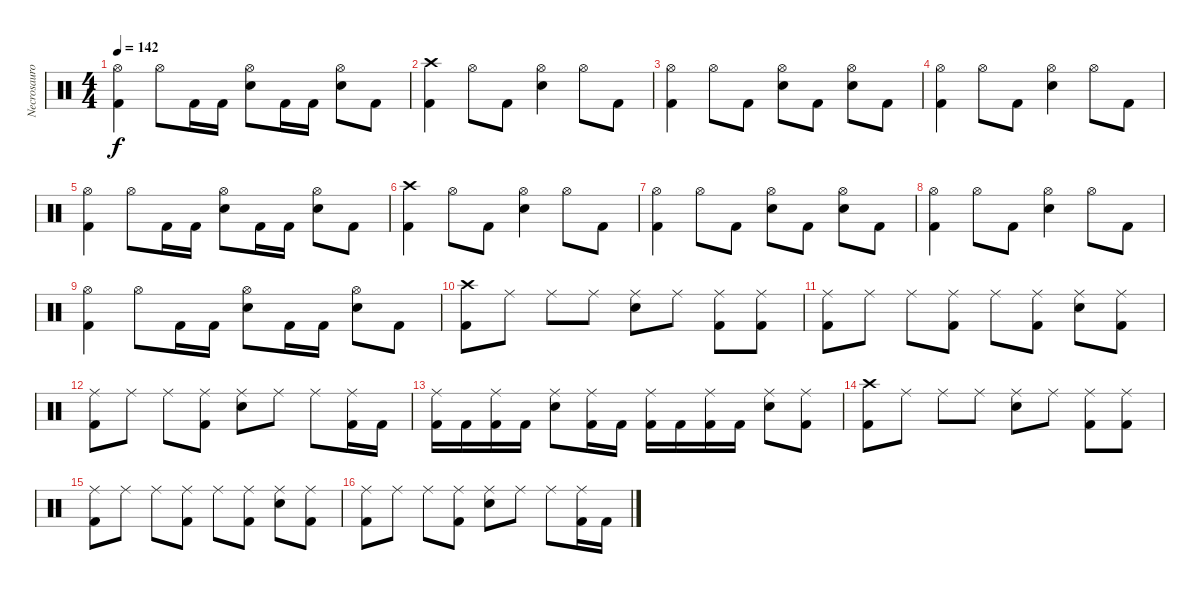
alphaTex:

\track ("Necrosauron" "Necrosauro") {instrument percussion}
\staff {score}
\articulation defaults
\ts (4 4)
\tempo 142
\clef neutral
\ks c
("Hi-Hat (open)" "Kick (hit) 2").4{dy f} "Hi-Hat (open)".8 "Kick (hit) 2".16 "Kick (hit) 2".16 ("Hi-Hat (open)" "Snare (hit) 2").8 "Kick (hit) 2".16 "Kick (hit) 2".16 ("Hi-Hat (open)" "Snare (hit) 2").8 "Kick (hit) 2".8 |
("Crash high (hit)" "Kick (hit) 2").4 "Hi-Hat (open)".8 "Kick (hit) 2".8 ("Hi-Hat (open)" "Snare (hit) 2").4 "Hi-Hat (open)".8 "Kick (hit) 2".8 |
("Hi-Hat (open)" "Kick (hit) 2").4 "Hi-Hat (open)".8 "Kick (hit) 2".8 ("Hi-Hat (open)" "Snare (hit) 2").8 "Kick (hit) 2".8 ("Hi-Hat (open)" "Snare (hit) 2").8 "Kick (hit) 2".8 |
("Hi-Hat (open)" "Kick (hit) 2").4 "Hi-Hat (open)".8 "Kick (hit) 2".8 ("Hi-Hat (open)" "Snare (hit) 2").4 "Hi-Hat (open)".8 "Kick (hit) 2".8 |
("Hi-Hat (open)" "Kick (hit) 2").4 "Hi-Hat (open)".8 "Kick (hit) 2".16 "Kick (hit) 2".16 ("Hi-Hat (open)" "Snare (hit) 2").8 "Kick (hit) 2".16 "Kick (hit) 2".16 ("Hi-Hat (open)" "Snare (hit) 2").8 "Kick (hit) 2".8 |
("Crash high (hit)" "Kick (hit) 2").4 "Hi-Hat (open)".8 "Kick (hit) 2".8 ("Hi-Hat (open)" "Snare (hit) 2").4 "Hi-Hat (open)".8 "Kick (hit) 2".8 |
("Hi-Hat (open)" "Kick (hit) 2").4 "Hi-Hat (open)".8 "Kick (hit) 2".8 ("Hi-Hat (open)" "Snare (hit) 2").8 "Kick (hit) 2".8 ("Hi-Hat (open)" "Snare (hit) 2").8 "Kick (hit) 2".8 |
("Hi-Hat (open)" "Kick (hit) 2").4 "Hi-Hat (open)".8 "Kick (hit) 2".8 ("Hi-Hat (open)" "Snare (hit) 2").4 "Hi-Hat (open)".8 "Kick (hit) 2".8 |
("Hi-Hat (open)" "Kick (hit) 2").4 "Hi-Hat (open)".8 "Kick (hit) 2".16 "Kick (hit) 2".16 ("Hi-Hat (open)" "Snare (hit) 2").8 "Kick (hit) 2".16 "Kick (hit) 2".16 ("Hi-Hat (open)" "Snare (hit) 2").8 "Kick (hit) 2".8 |
("Crash high (hit)" "Kick (hit) 2").8 "Ride (middle)".8 "Ride (middle)".8 "Ride (middle)".8 ("Ride (middle)" "Snare (hit) 2").8 "Ride (middle)".8 ("Ride (middle)" "Kick (hit) 2").8 ("Ride (middle)" "Kick (hit) 2").8 |
("Ride (middle)" "Kick (hit) 2").8 "Ride (middle)".8 "Ride (middle)".8 ("Ride (middle)" "Kick (hit) 2").8 "Ride (middle)".8 ("Ride (middle)" "Kick (hit) 2").8 ("Ride (middle)" "Snare (hit) 2").8 ("Ride (middle)" "Kick (hit) 2").8 |
("Ride (middle)" "Kick (hit) 2").8 "Ride (middle)".8 "Ride (middle)".8 ("Ride (middle)" "Kick (hit) 2").8 ("Ride (middle)" "Snare (hit) 2").8 "Ride (middle)".8 "Ride (middle)".8 ("Ride (middle)" "Kick (hit) 2").16 "Kick (hit) 2".16 |
("Ride (middle)" "Kick (hit) 2").16 "Kick (hit) 2".16 ("Ride (middle)" "Kick (hit) 2").16 "Kick (hit) 2".16 ("Ride (middle)" "Snare (hit) 2").8 ("Ride (middle)" "Kick (hit) 2").16 "Kick (hit) 2".16 ("Ride (middle)" "Kick (hit) 2").16 "Kick (hit) 2".16 ("Ride (middle)" "Kick (hit) 2").16 "Kick (hit) 2".16 ("Ride (middle)" "Snare (hit) 2").8 ("Ride (middle)" "Kick (hit) 2").8 |
("Crash high (hit)" "Kick (hit) 2").8 "Ride (middle)".8 "Ride (middle)".8 "Ride (middle)".8 ("Ride (middle)" "Snare (hit) 2").8 "Ride (middle)".8 ("Ride (middle)" "Kick (hit) 2").8 ("Ride (middle)" "Kick (hit) 2").8 |
("Ride (middle)" "Kick (hit) 2").8 "Ride (middle)".8 "Ride (middle)".8 ("Ride (middle)" "Kick (hit) 2").8 "Ride (middle)".8 ("Ride (middle)" "Kick (hit) 2").8 ("Ride (middle)" "Snare (hit) 2").8 ("Ride (middle)" "Kick (hit) 2").8 |
("Ride (middle)" "Kick (hit) 2").8 "Ride (middle)".8 "Ride (middle)".8 ("Ride (middle)" "Kick (hit) 2").8 ("Ride (middle)" "Snare (hit) 2").8 "Ride (middle)".8 "Ride (middle)".8 ("Ride (middle)" "Kick (hit) 2").16 "Kick (hit) 2".16
